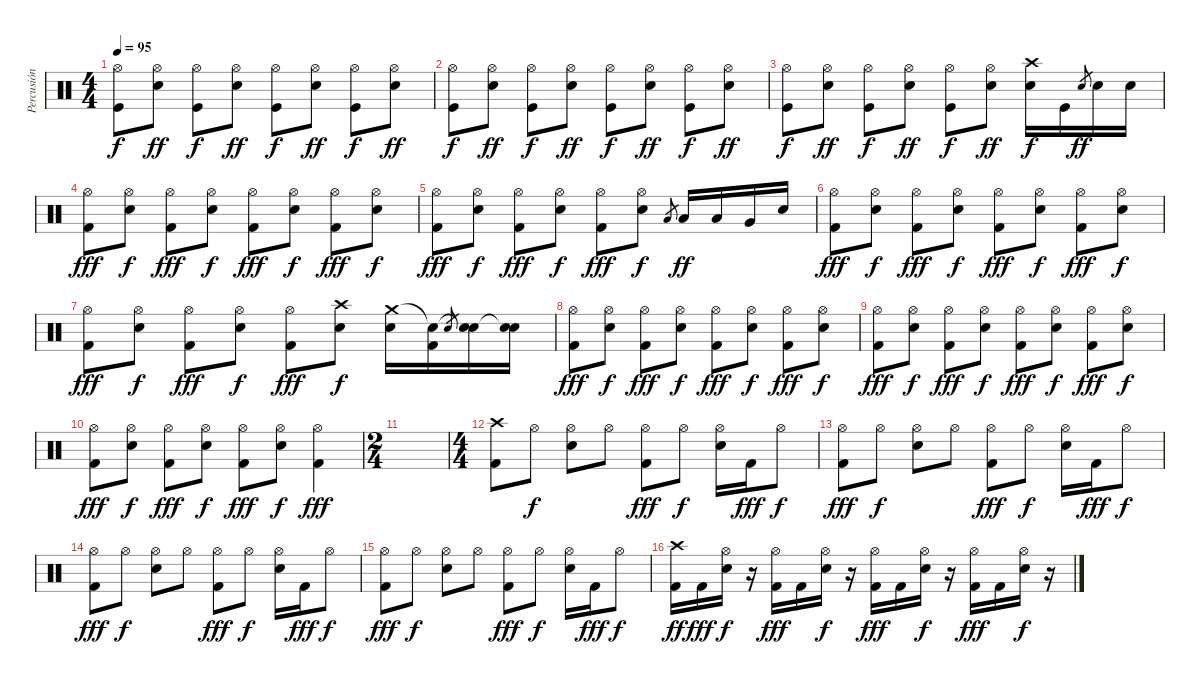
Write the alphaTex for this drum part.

\track ("Percusión" "Percusión") {instrument percussion}
\staff {score}
\articulation defaults
\ts (4 4)
\tempo 95
\clef neutral
\ks c
("Kick (hit)" "Hi-Hat (open)").8{dy f} ("Electric Snare (hit)" "Hi-Hat (open)").8{dy ff} ("Kick (hit)" "Hi-Hat (open)").8{dy f} ("Electric Snare (hit)" "Hi-Hat (open)").8{dy ff} ("Kick (hit)" "Hi-Hat (open)").8{dy f} ("Electric Snare (hit)" "Hi-Hat (open)").8{dy ff} ("Kick (hit)" "Hi-Hat (open)").8{dy f} ("Electric Snare (hit)" "Hi-Hat (open)").8{dy ff} |
("Kick (hit)" "Hi-Hat (open)").8{dy f} ("Electric Snare (hit)" "Hi-Hat (open)").8{dy ff} ("Kick (hit)" "Hi-Hat (open)").8{dy f} ("Electric Snare (hit)" "Hi-Hat (open)").8{dy ff} ("Kick (hit)" "Hi-Hat (open)").8{dy f} ("Electric Snare (hit)" "Hi-Hat (open)").8{dy ff} ("Kick (hit)" "Hi-Hat (open)").8{dy f} ("Electric Snare (hit)" "Hi-Hat (open)").8{dy ff} |
("Kick (hit)" "Hi-Hat (open)").8{dy f} ("Electric Snare (hit)" "Hi-Hat (open)").8{dy ff} ("Kick (hit)" "Hi-Hat (open)").8{dy f} ("Electric Snare (hit)" "Hi-Hat (open)").8{dy ff} ("Kick (hit)" "Hi-Hat (open)").8{dy f} ("Electric Snare (hit)" "Hi-Hat (open)").8{dy ff} ("Electric Snare (hit)" "Crash high (hit)").16{dy f} "Kick (hit)".16 "Electric Snare (hit)".8{gr dy ff} "Electric Snare (hit)".16 "Electric Snare (hit)".16 |
("Kick (hit) 2" "Hi-Hat (open)").8{dy fff} ("Electric Snare (hit)" "Hi-Hat (open)").8{dy f} ("Kick (hit) 2" "Hi-Hat (open)").8{dy fff} ("Electric Snare (hit)" "Hi-Hat (open)").8{dy f} ("Kick (hit) 2" "Hi-Hat (open)").8{dy fff} ("Electric Snare (hit)" "Hi-Hat (open)").8{dy f} ("Kick (hit) 2" "Hi-Hat (open)").8{dy fff} ("Electric Snare (hit)" "Hi-Hat (open)").8{dy f} |
("Kick (hit) 2" "Hi-Hat (open)").8{dy fff} ("Electric Snare (hit)" "Hi-Hat (open)").8{dy f} ("Kick (hit) 2" "Hi-Hat (open)").8{dy fff} ("Electric Snare (hit)" "Hi-Hat (open)").8{dy f} ("Kick (hit) 2" "Hi-Hat (open)").8{dy fff} ("Electric Snare (hit)" "Hi-Hat (open)").8{dy f} "Low Tom (hit)".8{gr} "Low Tom (hit)".16{dy ff} "Low Tom (hit)".16 "Very Low Tom (hit)".16 "Electric Snare (hit)".16 |
("Kick (hit) 2" "Hi-Hat (open)").8{dy fff} ("Electric Snare (hit)" "Hi-Hat (open)").8{dy f} ("Kick (hit) 2" "Hi-Hat (open)").8{dy fff} ("Electric Snare (hit)" "Hi-Hat (open)").8{dy f} ("Kick (hit) 2" "Hi-Hat (open)").8{dy fff} ("Electric Snare (hit)" "Hi-Hat (open)").8{dy f} ("Kick (hit) 2" "Hi-Hat (open)").8{dy fff} ("Electric Snare (hit)" "Hi-Hat (open)").8{dy f} |
("Kick (hit) 2" "Hi-Hat (open)").8{dy fff} ("Electric Snare (hit)" "Hi-Hat (open)").8{dy f} ("Kick (hit) 2" "Hi-Hat (open)").8{dy fff} ("Electric Snare (hit)" "Hi-Hat (open)").8{dy f} ("Kick (hit) 2" "Hi-Hat (open)").8{dy fff} ("Electric Snare (hit)" "Crash high (hit)").8{dy f} ("Electric Snare (hit)" "Crash medium (hit)").16 ("Kick (hit) 2" "Snare (hit)"{t}).16 "Electric Snare (hit)".8{gr} ("Electric Snare (hit)" "Snare (hit)"{t}).16 ("Electric Snare (hit)" "Snare (hit)"{t}).16 |
("Kick (hit) 2" "Hi-Hat (open)").8{dy fff} ("Electric Snare (hit)" "Hi-Hat (open)").8{dy f} ("Kick (hit) 2" "Hi-Hat (open)").8{dy fff} ("Electric Snare (hit)" "Hi-Hat (open)").8{dy f} ("Kick (hit) 2" "Hi-Hat (open)").8{dy fff} ("Electric Snare (hit)" "Hi-Hat (open)").8{dy f} ("Kick (hit) 2" "Hi-Hat (open)").8{dy fff} ("Electric Snare (hit)" "Hi-Hat (open)").8{dy f} |
("Kick (hit) 2" "Hi-Hat (open)").8{dy fff} ("Electric Snare (hit)" "Hi-Hat (open)").8{dy f} ("Kick (hit) 2" "Hi-Hat (open)").8{dy fff} ("Electric Snare (hit)" "Hi-Hat (open)").8{dy f} ("Kick (hit) 2" "Hi-Hat (open)").8{dy fff} ("Electric Snare (hit)" "Hi-Hat (open)").8{dy f} ("Kick (hit) 2" "Hi-Hat (open)").8{dy fff} ("Electric Snare (hit)" "Hi-Hat (open)").8{dy f} |
("Kick (hit) 2" "Hi-Hat (open)").8{dy fff} ("Electric Snare (hit)" "Hi-Hat (open)").8{dy f} ("Kick (hit) 2" "Hi-Hat (open)").8{dy fff} ("Electric Snare (hit)" "Hi-Hat (open)").8{dy f} ("Kick (hit) 2" "Hi-Hat (open)").8{dy fff} ("Electric Snare (hit)" "Hi-Hat (open)").8{dy f} ("Kick (hit) 2" "Hi-Hat (open)").4{dy fff} |
\ts (2 4)
|
\ts (4 4)
("Kick (hit) 2" "Crash high (hit)").8 "Hi-Hat (open)".8{dy f} ("Electric Snare (hit)" "Hi-Hat (open)").8 "Hi-Hat (open)".8 ("Kick (hit) 2" "Hi-Hat (open)").8{dy fff} "Hi-Hat (open)".8{dy f} ("Electric Snare (hit)" "Hi-Hat (open)").16 "Kick (hit) 2".16{dy fff} "Hi-Hat (open)".8{dy f} |
("Kick (hit) 2" "Hi-Hat (open)").8{dy fff} "Hi-Hat (open)".8{dy f} ("Electric Snare (hit)" "Hi-Hat (open)").8 "Hi-Hat (open)".8 ("Kick (hit) 2" "Hi-Hat (open)").8{dy fff} "Hi-Hat (open)".8{dy f} ("Electric Snare (hit)" "Hi-Hat (open)").16 "Kick (hit) 2".16{dy fff} "Hi-Hat (open)".8{dy f} |
("Kick (hit) 2" "Hi-Hat (open)").8{dy fff} "Hi-Hat (open)".8{dy f} ("Electric Snare (hit)" "Hi-Hat (open)").8 "Hi-Hat (open)".8 ("Kick (hit) 2" "Hi-Hat (open)").8{dy fff} "Hi-Hat (open)".8{dy f} ("Electric Snare (hit)" "Hi-Hat (open)").16 "Kick (hit) 2".16{dy fff} "Hi-Hat (open)".8{dy f} |
("Kick (hit) 2" "Hi-Hat (open)").8{dy fff} "Hi-Hat (open)".8{dy f} ("Electric Snare (hit)" "Hi-Hat (open)").8 "Hi-Hat (open)".8 ("Kick (hit) 2" "Hi-Hat (open)").8{dy fff} "Hi-Hat (open)".8{dy f} ("Electric Snare (hit)" "Hi-Hat (open)").16 "Kick (hit) 2".16{dy fff} "Hi-Hat (open)".8{dy f} |
("Kick (hit) 2" "Crash high (hit)").16{dy ff} "Kick (hit) 2".16{dy fff} ("Electric Snare (hit)" "Hi-Hat (open)").16{dy f} r.16 ("Kick (hit) 2" "Hi-Hat (open)").16{dy fff} "Kick (hit) 2".16 ("Electric Snare (hit)" "Hi-Hat (open)").16{dy f} r.16 ("Kick (hit) 2" "Hi-Hat (open)").16{dy fff} "Kick (hit) 2".16 ("Electric Snare (hit)" "Hi-Hat (open)").16{dy f} r.16 ("Kick (hit) 2" "Hi-Hat (open)").16{dy fff} "Kick (hit) 2".16 ("Electric Snare (hit)" "Hi-Hat (open)").16{dy f} r.16
